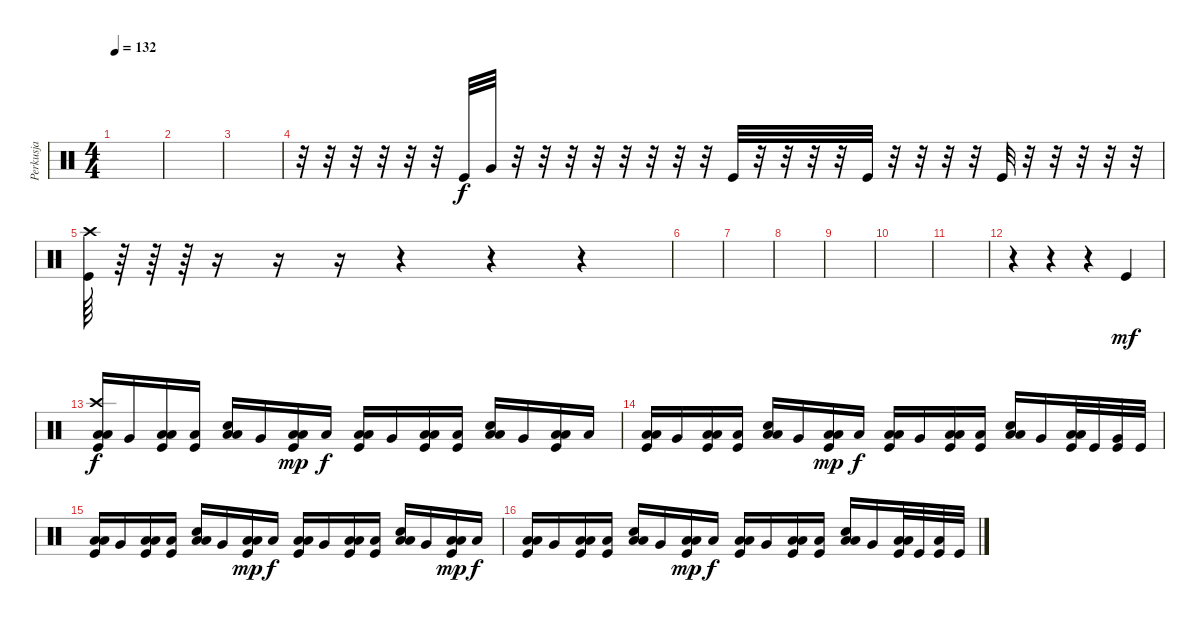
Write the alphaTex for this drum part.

\track ("Perkusja" "Perkusja") {instrument percussion}
\staff {score}
\articulation defaults
\ts (4 4)
\tempo 132
\clef neutral
\ks c
|
|
|
r.32 r.32 r.32 r.32 r.32 r.32 "Kick (hit)".32 "Very Low Tom (hit)".32 r.32 r.32 r.32 r.32 r.32 r.32 r.32 r.32 "Kick (hit)".32 r.32 r.32 r.32 r.32 "Kick (hit)".32 r.32 r.32 r.32 r.32 "Kick (hit)".32 r.32 r.32 r.32 r.32 r.32 |
("Crash high (hit)" "Kick (hit)").64 r.64 r.64 r.64 r.16 r.16 r.16 r.4 r.4 r.4 |
|
|
|
|
|
|
r.4 r.4 r.4 "Kick (hit)".4{dy mf} |
("Crash high (hit)" "Low Floor Tom (hit)" "Low Floor Tom (hit)" "Kick (hit)").16{dy f} "Very Low Tom (hit)".16 ("Low Floor Tom (hit)" "Low Floor Tom (hit)" "Kick (hit)").16 ("Low Tom (hit)" "Kick (hit)").16 ("Low Floor Tom (hit)" "Low Floor Tom (hit)" "Electric Snare (hit)").16 "Very Low Tom (hit)".16 ("Low Floor Tom (hit)" "Low Floor Tom (hit)" "Kick (hit)").16{dy mp} "Low Tom (hit)".16{dy f} ("Low Floor Tom (hit)" "Low Floor Tom (hit)" "Kick (hit)").16 "Very Low Tom (hit)".16 ("Low Floor Tom (hit)" "Low Floor Tom (hit)" "Kick (hit)").16 ("Low Tom (hit)" "Kick (hit)").16 ("Low Floor Tom (hit)" "Low Floor Tom (hit)" "Electric Snare (hit)").16 "Very Low Tom (hit)".16 ("Low Floor Tom (hit)" "Low Floor Tom (hit)" "Kick (hit)").16 "Low Tom (hit)".16 |
("Low Floor Tom (hit)" "Low Floor Tom (hit)" "Kick (hit)").16 "Very Low Tom (hit)".16 ("Low Floor Tom (hit)" "Low Floor Tom (hit)" "Kick (hit)").16 ("Low Tom (hit)" "Kick (hit)").16 ("Low Floor Tom (hit)" "Low Floor Tom (hit)" "Electric Snare (hit)").16 "Very Low Tom (hit)".16 ("Low Floor Tom (hit)" "Low Floor Tom (hit)" "Kick (hit)").16{dy mp} "Low Tom (hit)".16{dy f} ("Low Floor Tom (hit)" "Low Floor Tom (hit)" "Kick (hit)").16 "Very Low Tom (hit)".16 ("Low Floor Tom (hit)" "Low Floor Tom (hit)" "Kick (hit)").16 ("Low Tom (hit)" "Kick (hit)").16 ("Low Floor Tom (hit)" "Low Floor Tom (hit)" "Electric Snare (hit)").16 "Very Low Tom (hit)".16 ("Low Floor Tom (hit)" "Low Floor Tom (hit)" "Kick (hit)").32 "Kick (hit)".32 ("Very Low Tom (hit)" "Kick (hit)").32 "Kick (hit)".32 |
("Low Floor Tom (hit)" "Low Floor Tom (hit)" "Kick (hit)").16 "Very Low Tom (hit)".16 ("Low Floor Tom (hit)" "Low Floor Tom (hit)" "Kick (hit)").16 ("Low Tom (hit)" "Kick (hit)").16 ("Low Floor Tom (hit)" "Low Floor Tom (hit)" "Electric Snare (hit)").16 "Very Low Tom (hit)".16 ("Low Floor Tom (hit)" "Low Floor Tom (hit)" "Kick (hit)").16{dy mp} "Low Tom (hit)".16{dy f} ("Low Floor Tom (hit)" "Low Floor Tom (hit)" "Kick (hit)").16 "Very Low Tom (hit)".16 ("Low Floor Tom (hit)" "Low Floor Tom (hit)" "Kick (hit)").16 ("Low Tom (hit)" "Kick (hit)").16 ("Low Floor Tom (hit)" "Low Floor Tom (hit)" "Electric Snare (hit)").16 "Very Low Tom (hit)".16 ("Low Floor Tom (hit)" "Low Floor Tom (hit)" "Kick (hit)").16{dy mp} "Low Tom (hit)".16{dy f} |
("Low Floor Tom (hit)" "Low Floor Tom (hit)" "Kick (hit)").16 "Very Low Tom (hit)".16 ("Low Floor Tom (hit)" "Low Floor Tom (hit)" "Kick (hit)").16 ("Low Tom (hit)" "Kick (hit)").16 ("Low Floor Tom (hit)" "Low Floor Tom (hit)" "Electric Snare (hit)").16 "Very Low Tom (hit)".16 ("Low Floor Tom (hit)" "Low Floor Tom (hit)" "Kick (hit)").16{dy mp} "Low Tom (hit)".16{dy f} ("Low Floor Tom (hit)" "Low Floor Tom (hit)" "Kick (hit)").16 "Very Low Tom (hit)".16 ("Low Floor Tom (hit)" "Low Floor Tom (hit)" "Kick (hit)").16 ("Low Tom (hit)" "Kick (hit)").16 ("Low Floor Tom (hit)" "Low Floor Tom (hit)" "Electric Snare (hit)").16 "Very Low Tom (hit)".16 ("Low Floor Tom (hit)" "Low Floor Tom (hit)" "Kick (hit)").32 "Kick (hit)".32 ("Low Tom (hit)" "Kick (hit)").32 "Kick (hit)".32
